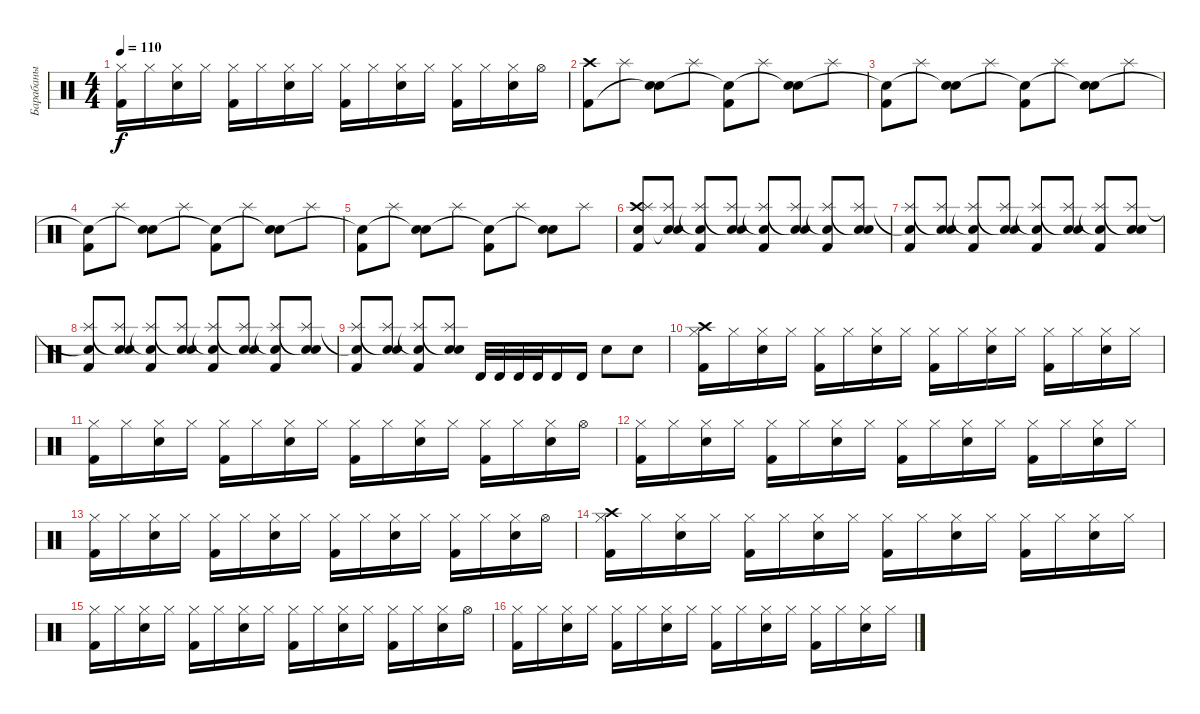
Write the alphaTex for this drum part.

\track ("Барабаны" "Барабаны") {instrument percussion}
\staff {score}
\articulation defaults
\ts (4 4)
\tempo 110
\clef neutral
\ks c
("Kick (hit) 2" "Hi-Hat (closed)").16{dy f} "Hi-Hat (closed)".16 ("Electric Snare (hit)" "Hi-Hat (closed)").16 "Hi-Hat (closed)".16 ("Kick (hit) 2" "Hi-Hat (closed)").16 "Hi-Hat (closed)".16 ("Electric Snare (hit)" "Hi-Hat (closed)").16 "Hi-Hat (closed)".16 ("Kick (hit) 2" "Hi-Hat (closed)").16 "Hi-Hat (closed)".16 ("Electric Snare (hit)" "Hi-Hat (closed)").16 "Hi-Hat (closed)".16 ("Kick (hit) 2" "Hi-Hat (closed)").16 "Hi-Hat (closed)".16 ("Electric Snare (hit)" "Hi-Hat (closed)").16 "Hi-Hat (open)".16 |
("Crash high (hit)" "Kick (hit) 2").8 "Splash (hit)".8 ("Electric Snare (hit)" "Snare (hit)"{t}).8 "Splash (hit)".8 ("Kick (hit) 2" "Snare (hit)"{t}).8 "Splash (hit)".8 ("Electric Snare (hit)" "Snare (hit)"{t}).8 "Splash (hit)".8 |
("Kick (hit) 2" "Snare (hit)"{t}).8 "Splash (hit)".8 ("Electric Snare (hit)" "Snare (hit)"{t}).8 "Splash (hit)".8 ("Kick (hit) 2" "Snare (hit)"{t}).8 "Splash (hit)".8 ("Electric Snare (hit)" "Snare (hit)"{t}).8 "Splash (hit)".8 |
("Kick (hit) 2" "Snare (hit)"{t}).8 "Splash (hit)".8 ("Electric Snare (hit)" "Snare (hit)"{t}).8 "Splash (hit)".8 ("Kick (hit) 2" "Snare (hit)"{t}).8 "Splash (hit)".8 ("Electric Snare (hit)" "Snare (hit)"{t}).8 "Splash (hit)".8 |
("Kick (hit) 2" "Snare (hit)"{t}).8 "Splash (hit)".8 ("Electric Snare (hit)" "Snare (hit)"{t}).8 "Splash (hit)".8 ("Kick (hit) 2" "Snare (hit)"{t}).8 "Splash (hit)".8 ("Electric Snare (hit)" "Snare (hit)"{t}).8 "Splash (hit)".8 |
("Crash high (hit)" "Kick (hit) 2" "Snare (hit)" "Splash (hit)").8 ("Electric Snare (hit)" "Splash (hit)" "Snare (hit)"{t}).8 ("Kick (hit) 2" "Snare (hit)"{t} "Splash (hit)").8 ("Electric Snare (hit)" "Splash (hit)" "Snare (hit)"{t}).8 ("Kick (hit) 2" "Snare (hit)"{t} "Splash (hit)").8 ("Electric Snare (hit)" "Splash (hit)" "Snare (hit)"{t}).8 ("Kick (hit) 2" "Snare (hit)"{t} "Splash (hit)").8 ("Electric Snare (hit)" "Splash (hit)" "Snare (hit)"{t}).8 |
("Kick (hit) 2" "Snare (hit)"{t} "Splash (hit)").8 ("Electric Snare (hit)" "Splash (hit)" "Snare (hit)"{t}).8 ("Kick (hit) 2" "Snare (hit)"{t} "Splash (hit)").8 ("Electric Snare (hit)" "Splash (hit)" "Snare (hit)"{t}).8 ("Kick (hit) 2" "Snare (hit)"{t} "Splash (hit)").8 ("Electric Snare (hit)" "Splash (hit)" "Snare (hit)"{t}).8 ("Kick (hit) 2" "Snare (hit)"{t} "Splash (hit)").8 ("Electric Snare (hit)" "Splash (hit)" "Snare (hit)"{t}).8 |
("Kick (hit) 2" "Snare (hit)"{t} "Splash (hit)").8 ("Electric Snare (hit)" "Splash (hit)" "Snare (hit)"{t}).8 ("Kick (hit) 2" "Snare (hit)"{t} "Splash (hit)").8 ("Electric Snare (hit)" "Splash (hit)" "Snare (hit)"{t}).8 ("Kick (hit) 2" "Snare (hit)"{t} "Splash (hit)").8 ("Electric Snare (hit)" "Splash (hit)" "Snare (hit)"{t}).8 ("Kick (hit) 2" "Snare (hit)"{t} "Splash (hit)").8 ("Electric Snare (hit)" "Splash (hit)" "Snare (hit)"{t}).8 |
("Kick (hit) 2" "Snare (hit)"{t} "Splash (hit)").8 ("Electric Snare (hit)" "Splash (hit)" "Snare (hit)"{t}).8 ("Kick (hit) 2" "Snare (hit)"{t} "Splash (hit)").8 ("Electric Snare (hit)" "Splash (hit)" "Snare (hit)"{t}).8 "Timbale high (hit)".32 "Timbale high (hit)".32 "Timbale high (hit)".32 "Timbale high (hit)".32 "Timbale high (hit)".16 "Timbale high (hit)".16 "Electric Snare (hit)".8 "Electric Snare (hit)".8 |
("Kick (hit) 2" "Crash high (hit)" "Hi-Hat (closed)").16 "Hi-Hat (closed)".16 ("Electric Snare (hit)" "Hi-Hat (closed)").16 "Hi-Hat (closed)".16 ("Kick (hit) 2" "Hi-Hat (closed)").16 "Hi-Hat (closed)".16 ("Electric Snare (hit)" "Hi-Hat (closed)").16 "Hi-Hat (closed)".16 ("Kick (hit) 2" "Hi-Hat (closed)").16 "Hi-Hat (closed)".16 ("Electric Snare (hit)" "Hi-Hat (closed)").16 "Hi-Hat (closed)".16 ("Kick (hit) 2" "Hi-Hat (closed)").16 "Hi-Hat (closed)".16 ("Electric Snare (hit)" "Hi-Hat (closed)").16 "Hi-Hat (closed)".16 |
("Kick (hit) 2" "Hi-Hat (closed)").16 "Hi-Hat (closed)".16 ("Electric Snare (hit)" "Hi-Hat (closed)").16 "Hi-Hat (closed)".16 ("Kick (hit) 2" "Hi-Hat (closed)").16 "Hi-Hat (closed)".16 ("Electric Snare (hit)" "Hi-Hat (closed)").16 "Hi-Hat (closed)".16 ("Kick (hit) 2" "Hi-Hat (closed)").16 "Hi-Hat (closed)".16 ("Electric Snare (hit)" "Hi-Hat (closed)").16 "Hi-Hat (closed)".16 ("Kick (hit) 2" "Hi-Hat (closed)").16 "Hi-Hat (closed)".16 ("Electric Snare (hit)" "Hi-Hat (closed)").16 "Hi-Hat (open)".16 |
("Kick (hit) 2" "Hi-Hat (closed)").16 "Hi-Hat (closed)".16 ("Electric Snare (hit)" "Hi-Hat (closed)").16 "Hi-Hat (closed)".16 ("Kick (hit) 2" "Hi-Hat (closed)").16 "Hi-Hat (closed)".16 ("Electric Snare (hit)" "Hi-Hat (closed)").16 "Hi-Hat (closed)".16 ("Kick (hit) 2" "Hi-Hat (closed)").16 "Hi-Hat (closed)".16 ("Electric Snare (hit)" "Hi-Hat (closed)").16 "Hi-Hat (closed)".16 ("Kick (hit) 2" "Hi-Hat (closed)").16 "Hi-Hat (closed)".16 ("Electric Snare (hit)" "Hi-Hat (closed)").16 "Hi-Hat (closed)".16 |
("Kick (hit) 2" "Hi-Hat (closed)").16 "Hi-Hat (closed)".16 ("Electric Snare (hit)" "Hi-Hat (closed)").16 "Hi-Hat (closed)".16 ("Kick (hit) 2" "Hi-Hat (closed)").16 "Hi-Hat (closed)".16 ("Electric Snare (hit)" "Hi-Hat (closed)").16 "Hi-Hat (closed)".16 ("Kick (hit) 2" "Hi-Hat (closed)").16 "Hi-Hat (closed)".16 ("Electric Snare (hit)" "Hi-Hat (closed)").16 "Hi-Hat (closed)".16 ("Kick (hit) 2" "Hi-Hat (closed)").16 "Hi-Hat (closed)".16 ("Electric Snare (hit)" "Hi-Hat (closed)").16 "Hi-Hat (open)".16 |
("Kick (hit) 2" "Crash high (hit)" "Hi-Hat (closed)").16 "Hi-Hat (closed)".16 ("Electric Snare (hit)" "Hi-Hat (closed)").16 "Hi-Hat (closed)".16 ("Kick (hit) 2" "Hi-Hat (closed)").16 "Hi-Hat (closed)".16 ("Electric Snare (hit)" "Hi-Hat (closed)").16 "Hi-Hat (closed)".16 ("Kick (hit) 2" "Hi-Hat (closed)").16 "Hi-Hat (closed)".16 ("Electric Snare (hit)" "Hi-Hat (closed)").16 "Hi-Hat (closed)".16 ("Kick (hit) 2" "Hi-Hat (closed)").16 "Hi-Hat (closed)".16 ("Electric Snare (hit)" "Hi-Hat (closed)").16 "Hi-Hat (closed)".16 |
("Kick (hit) 2" "Hi-Hat (closed)").16 "Hi-Hat (closed)".16 ("Electric Snare (hit)" "Hi-Hat (closed)").16 "Hi-Hat (closed)".16 ("Kick (hit) 2" "Hi-Hat (closed)").16 "Hi-Hat (closed)".16 ("Electric Snare (hit)" "Hi-Hat (closed)").16 "Hi-Hat (closed)".16 ("Kick (hit) 2" "Hi-Hat (closed)").16 "Hi-Hat (closed)".16 ("Electric Snare (hit)" "Hi-Hat (closed)").16 "Hi-Hat (closed)".16 ("Kick (hit) 2" "Hi-Hat (closed)").16 "Hi-Hat (closed)".16 ("Electric Snare (hit)" "Hi-Hat (closed)").16 "Hi-Hat (open)".16 |
("Kick (hit) 2" "Hi-Hat (closed)").16 "Hi-Hat (closed)".16 ("Electric Snare (hit)" "Hi-Hat (closed)").16 "Hi-Hat (closed)".16 ("Kick (hit) 2" "Hi-Hat (closed)").16 "Hi-Hat (closed)".16 ("Electric Snare (hit)" "Hi-Hat (closed)").16 "Hi-Hat (closed)".16 ("Kick (hit) 2" "Hi-Hat (closed)").16 "Hi-Hat (closed)".16 ("Electric Snare (hit)" "Hi-Hat (closed)").16 "Hi-Hat (closed)".16 ("Kick (hit) 2" "Hi-Hat (closed)").16 "Hi-Hat (closed)".16 ("Electric Snare (hit)" "Hi-Hat (closed)").16 "Hi-Hat (closed)".16
